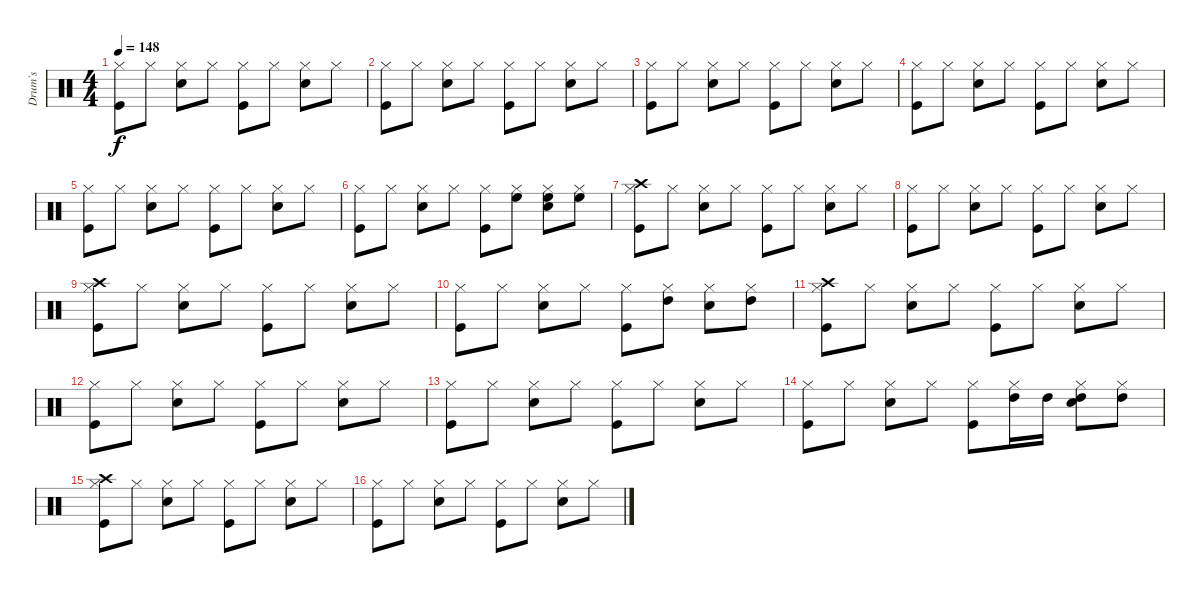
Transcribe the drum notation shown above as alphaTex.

\track ("Drum`s" "Drum`s") {instrument percussion}
\staff {score}
\articulation defaults
\ts (4 4)
\tempo 148
\clef neutral
\ks c
("Kick (hit)" "Hi-Hat (closed)").8{dy f} "Hi-Hat (closed)".8 ("Hi-Hat (closed)" "Snare (hit) 2").8 "Hi-Hat (closed)".8 ("Kick (hit)" "Hi-Hat (closed)").8 "Hi-Hat (closed)".8 ("Hi-Hat (closed)" "Snare (hit) 2").8 "Hi-Hat (closed)".8 |
("Kick (hit)" "Hi-Hat (closed)").8 "Hi-Hat (closed)".8 ("Hi-Hat (closed)" "Snare (hit) 2").8 "Hi-Hat (closed)".8 ("Kick (hit)" "Hi-Hat (closed)").8 "Hi-Hat (closed)".8 ("Hi-Hat (closed)" "Snare (hit) 2").8 "Hi-Hat (closed)".8 |
("Kick (hit)" "Hi-Hat (closed)").8 "Hi-Hat (closed)".8 ("Hi-Hat (closed)" "Snare (hit) 2").8 "Hi-Hat (closed)".8 ("Hi-Hat (closed)" "Kick (hit)").8 "Hi-Hat (closed)".8 ("Hi-Hat (closed)" "Snare (hit) 2").8 "Hi-Hat (closed)".8 |
("Hi-Hat (closed)" "Kick (hit)").8 "Hi-Hat (closed)".8 ("Hi-Hat (closed)" "Snare (hit) 2").8 "Hi-Hat (closed)".8 ("Hi-Hat (closed)" "Kick (hit)").8 "Hi-Hat (closed)".8 ("Hi-Hat (closed)" "Snare (hit) 2").8 "Hi-Hat (closed)".8 |
("Hi-Hat (closed)" "Kick (hit)").8 "Hi-Hat (closed)".8 ("Hi-Hat (closed)" "Snare (hit) 2").8 "Hi-Hat (closed)".8 ("Hi-Hat (closed)" "Kick (hit)").8 "Hi-Hat (closed)".8 ("Hi-Hat (closed)" "Snare (hit) 2").8 "Hi-Hat (closed)".8 |
("Hi-Hat (closed)" "Kick (hit)").8 "Hi-Hat (closed)".8 ("Hi-Hat (closed)" "Snare (hit) 2").8 "Hi-Hat (closed)".8 ("Hi-Hat (closed)" "Kick (hit)").8 ("High Floor Tom (hit)" "Hi-Hat (closed)").8 ("High Floor Tom (hit)" "Hi-Hat (closed)" "Snare (hit) 2").8 ("High Floor Tom (hit)" "Hi-Hat (closed)").8 |
("Crash high (hit)" "Hi-Hat (closed)" "Kick (hit)").8 "Hi-Hat (closed)".8 ("Hi-Hat (closed)" "Snare (hit) 2").8 "Hi-Hat (closed)".8 ("Hi-Hat (closed)" "Kick (hit)").8 "Hi-Hat (closed)".8 ("Hi-Hat (closed)" "Snare (hit) 2").8 "Hi-Hat (closed)".8 |
("Hi-Hat (closed)" "Kick (hit)").8 "Hi-Hat (closed)".8 ("Hi-Hat (closed)" "Snare (hit) 2").8 "Hi-Hat (closed)".8 ("Hi-Hat (closed)" "Kick (hit)").8 "Hi-Hat (closed)".8 ("Hi-Hat (closed)" "Snare (hit) 2").8 "Hi-Hat (closed)".8 |
("Crash high (hit)" "Hi-Hat (closed)" "Kick (hit)").8 "Hi-Hat (closed)".8 ("Hi-Hat (closed)" "Snare (hit) 2").8 "Hi-Hat (closed)".8 ("Hi-Hat (closed)" "Kick (hit)").8 "Hi-Hat (closed)".8 ("Hi-Hat (closed)" "Snare (hit) 2").8 "Hi-Hat (closed)".8 |
("Hi-Hat (closed)" "Kick (hit)").8 "Hi-Hat (closed)".8 ("Hi-Hat (closed)" "Snare (hit) 2").8 "Hi-Hat (closed)".8 ("Hi-Hat (closed)" "Kick (hit)").8 ("High Tom (hit)" "Hi-Hat (closed)").8 ("Hi-Hat (closed)" "Snare (hit) 2").8 ("High Tom (hit)" "Hi-Hat (closed)").8 |
("Crash high (hit)" "Hi-Hat (closed)" "Kick (hit)").8 "Hi-Hat (closed)".8 ("Hi-Hat (closed)" "Snare (hit) 2").8 "Hi-Hat (closed)".8 ("Hi-Hat (closed)" "Kick (hit)").8 "Hi-Hat (closed)".8 ("Hi-Hat (closed)" "Snare (hit) 2").8 "Hi-Hat (closed)".8 |
("Kick (hit)" "Hi-Hat (closed)").8 "Hi-Hat (closed)".8 ("Hi-Hat (closed)" "Snare (hit) 2").8 "Hi-Hat (closed)".8 ("Kick (hit)" "Hi-Hat (closed)").8 "Hi-Hat (closed)".8 ("Hi-Hat (closed)" "Snare (hit) 2").8 "Hi-Hat (closed)".8 |
("Kick (hit)" "Hi-Hat (closed)").8 "Hi-Hat (closed)".8 ("Hi-Hat (closed)" "Snare (hit) 2").8 "Hi-Hat (closed)".8 ("Kick (hit)" "Hi-Hat (closed)").8 "Hi-Hat (closed)".8 ("Hi-Hat (closed)" "Snare (hit) 2").8 "Hi-Hat (closed)".8 |
("Kick (hit)" "Hi-Hat (closed)").8 "Hi-Hat (closed)".8 ("Hi-Hat (closed)" "Snare (hit) 2").8 "Hi-Hat (closed)".8 ("Kick (hit)" "Hi-Hat (closed)").8 ("High Tom (hit)" "Hi-Hat (closed)").16 "High Tom (hit)".16 ("High Tom (hit)" "Hi-Hat (closed)" "Snare (hit) 2").8 ("High Tom (hit)" "Hi-Hat (closed)").8 |
("Crash high (hit)" "Kick (hit)" "Hi-Hat (closed)").8 "Hi-Hat (closed)".8 ("Hi-Hat (closed)" "Snare (hit) 2").8 "Hi-Hat (closed)".8 ("Kick (hit)" "Hi-Hat (closed)").8 "Hi-Hat (closed)".8 ("Hi-Hat (closed)" "Snare (hit) 2").8 "Hi-Hat (closed)".8 |
("Kick (hit)" "Hi-Hat (closed)").8 "Hi-Hat (closed)".8 ("Hi-Hat (closed)" "Snare (hit) 2").8 "Hi-Hat (closed)".8 ("Kick (hit)" "Hi-Hat (closed)").8 "Hi-Hat (closed)".8 ("Hi-Hat (closed)" "Snare (hit) 2").8 "Hi-Hat (closed)".8
